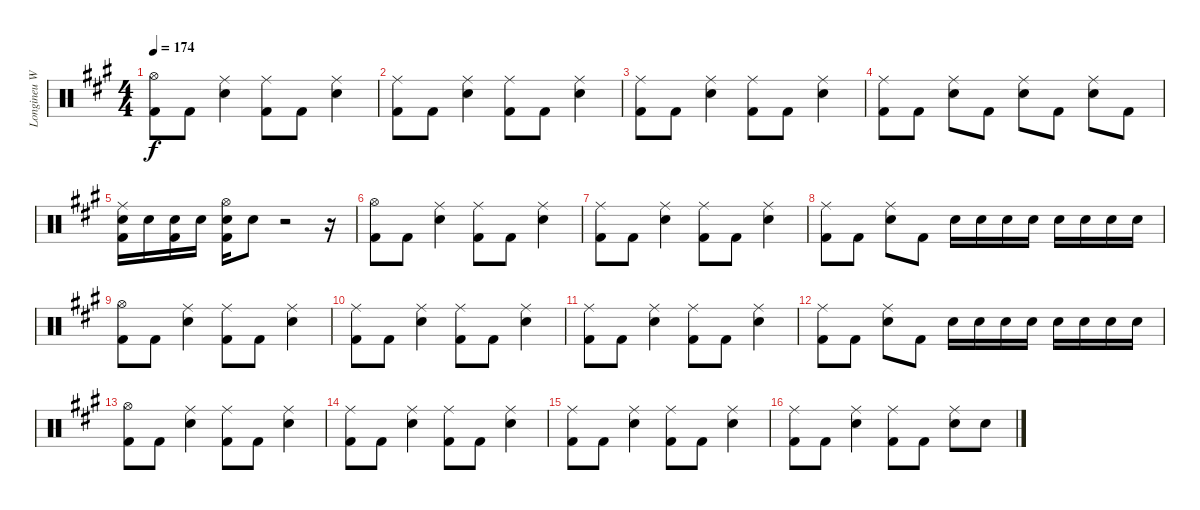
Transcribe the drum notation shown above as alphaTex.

\track ("Longineu W. Parsons III" "Longineu W") {instrument percussion}
\staff {score}
\articulation defaults
\ts (4 4)
\tempo 174
\clef neutral
\ks a
("Hi-Hat (open)" "Kick (hit) 2").8{dy f} "Kick (hit) 2".8 ("Electric Snare (hit)" "Ride (middle)").4 ("Ride (middle)" "Kick (hit) 2").8 "Kick (hit) 2".8 ("Electric Snare (hit)" "Ride (middle)").4 |
("Ride (middle)" "Kick (hit) 2").8 "Kick (hit) 2".8 ("Electric Snare (hit)" "Ride (middle)").4 ("Ride (middle)" "Kick (hit) 2").8 "Kick (hit) 2".8 ("Electric Snare (hit)" "Ride (middle)").4 |
("Ride (middle)" "Kick (hit) 2").8 "Kick (hit) 2".8 ("Electric Snare (hit)" "Ride (middle)").4 ("Ride (middle)" "Kick (hit) 2").8 "Kick (hit) 2".8 ("Electric Snare (hit)" "Ride (middle)").4 |
("Ride (middle)" "Kick (hit) 2").8 "Kick (hit) 2".8 ("Electric Snare (hit)" "Ride (middle)").8 "Kick (hit) 2".8 ("Electric Snare (hit)" "Ride (middle)").8 "Kick (hit) 2".8 ("Electric Snare (hit)" "Ride (middle)").8 "Kick (hit) 2".8 |
("Electric Snare (hit)" "Ride (middle)" "Kick (hit) 2").16 "Electric Snare (hit)".16 ("Electric Snare (hit)" "Kick (hit) 2").16 "Electric Snare (hit)".16 ("Electric Snare (hit)" "Hi-Hat (open)" "Kick (hit) 2").16 "Electric Snare (hit)".8 r.2 r.16 |
("Hi-Hat (open)" "Kick (hit) 2").8 "Kick (hit) 2".8 ("Electric Snare (hit)" "Ride (middle)").4 ("Ride (middle)" "Kick (hit) 2").8 "Kick (hit) 2".8 ("Electric Snare (hit)" "Ride (middle)").4 |
("Ride (middle)" "Kick (hit) 2").8 "Kick (hit) 2".8 ("Electric Snare (hit)" "Ride (middle)").4 ("Ride (middle)" "Kick (hit) 2").8 "Kick (hit) 2".8 ("Electric Snare (hit)" "Ride (middle)").4 |
("Ride (middle)" "Kick (hit) 2").8 "Kick (hit) 2".8 ("Electric Snare (hit)" "Ride (middle)").8 "Kick (hit) 2".8 "Electric Snare (hit)".16 "Electric Snare (hit)".16 "Electric Snare (hit)".16 "Electric Snare (hit)".16 "Electric Snare (hit)".16 "Electric Snare (hit)".16 "Electric Snare (hit)".16 "Electric Snare (hit)".16 |
("Hi-Hat (open)" "Kick (hit) 2").8 "Kick (hit) 2".8 ("Electric Snare (hit)" "Ride (middle)").4 ("Ride (middle)" "Kick (hit) 2").8 "Kick (hit) 2".8 ("Electric Snare (hit)" "Ride (middle)").4 |
("Ride (middle)" "Kick (hit) 2").8 "Kick (hit) 2".8 ("Electric Snare (hit)" "Ride (middle)").4 ("Ride (middle)" "Kick (hit) 2").8 "Kick (hit) 2".8 ("Electric Snare (hit)" "Ride (middle)").4 |
("Ride (middle)" "Kick (hit) 2").8 "Kick (hit) 2".8 ("Electric Snare (hit)" "Ride (middle)").4 ("Ride (middle)" "Kick (hit) 2").8 "Kick (hit) 2".8 ("Electric Snare (hit)" "Ride (middle)").4 |
("Ride (middle)" "Kick (hit) 2").8 "Kick (hit) 2".8 ("Electric Snare (hit)" "Ride (middle)").8 "Kick (hit) 2".8 "Electric Snare (hit)".16 "Electric Snare (hit)".16 "Electric Snare (hit)".16 "Electric Snare (hit)".16 "Electric Snare (hit)".16 "Electric Snare (hit)".16 "Electric Snare (hit)".16 "Electric Snare (hit)".16 |
("Hi-Hat (open)" "Kick (hit) 2").8 "Kick (hit) 2".8 ("Electric Snare (hit)" "Ride (middle)").4 ("Ride (middle)" "Kick (hit) 2").8 "Kick (hit) 2".8 ("Electric Snare (hit)" "Ride (middle)").4 |
("Ride (middle)" "Kick (hit) 2").8 "Kick (hit) 2".8 ("Electric Snare (hit)" "Ride (middle)").4 ("Ride (middle)" "Kick (hit) 2").8 "Kick (hit) 2".8 ("Electric Snare (hit)" "Ride (middle)").4 |
("Ride (middle)" "Kick (hit) 2").8 "Kick (hit) 2".8 ("Electric Snare (hit)" "Ride (middle)").4 ("Ride (middle)" "Kick (hit) 2").8 "Kick (hit) 2".8 ("Electric Snare (hit)" "Ride (middle)").4 |
("Ride (middle)" "Kick (hit) 2").8 "Kick (hit) 2".8 ("Electric Snare (hit)" "Ride (middle)").4 ("Ride (middle)" "Kick (hit) 2").8 "Kick (hit) 2".8 ("Electric Snare (hit)" "Ride (middle)").8 "Electric Snare (hit)".8
